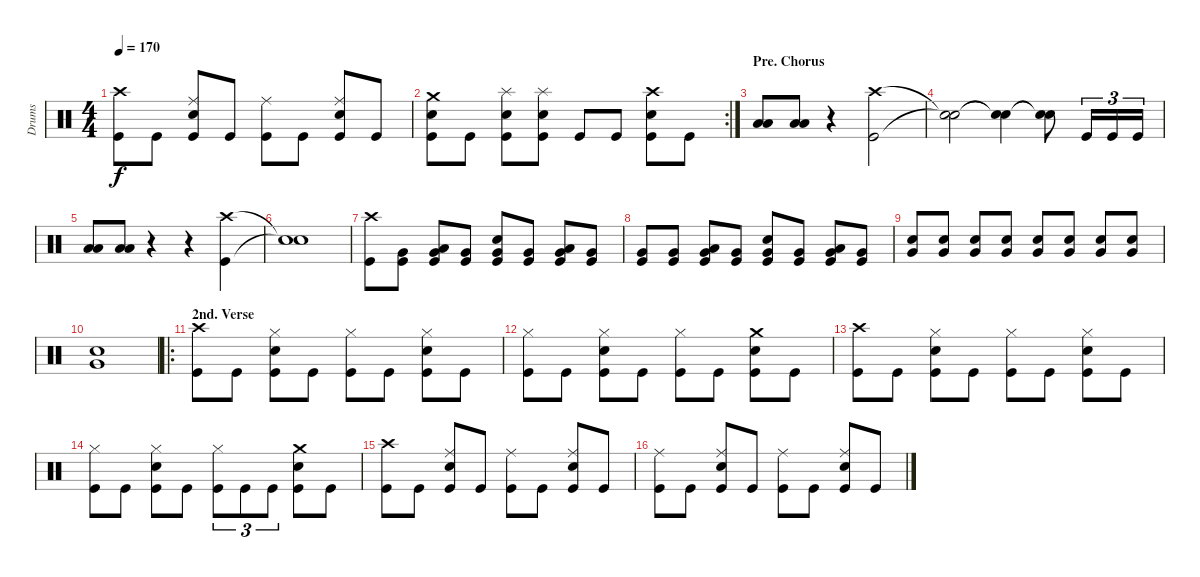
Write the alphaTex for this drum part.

\track ("Drums" "Drums") {instrument percussion}
\staff {score}
\articulation defaults
\ts (4 4)
\tempo 170
\clef neutral
\ks c
("Crash high (hit)" "Kick (hit)").8{dy f} "Kick (hit)".8 ("Ride (middle)" "Snare (hit) 2" "Kick (hit)").8 "Kick (hit)".8 ("Ride (middle)" "Kick (hit)").8 "Kick (hit)".8 ("Ride (middle)" "Snare (hit) 2" "Kick (hit)").8 "Kick (hit)".8 |
\rc 2
("Crash medium (hit)" "Snare (hit) 2" "Kick (hit)").8 "Kick (hit)".8 ("Splash (hit)" "Snare (hit) 2" "Kick (hit)").8 ("Splash (hit)" "Snare (hit) 2" "Kick (hit)").8 "Kick (hit)".8 "Kick (hit)".8 ("Crash high (hit)" "Snare (hit) 2" "Kick (hit)").8 "Kick (hit)".8 |
\section ("" "Pre. Chorus")
("Low Tom (hit)" "Low Floor Tom (hit)").8 ("Low Tom (hit)" "Low Floor Tom (hit)").8 r.4 ("Crash high (hit)" "Kick (hit)").2 |
("Snare (hit)"{t} "Snare (hit)"{t}).2 ("Snare (hit)"{t} "Snare (hit)"{t}).4 ("Snare (hit)"{t} "Snare (hit)"{t}).8 "Kick (hit)".16{tu (3 2)} "Kick (hit)".16{tu (3 2)} "Kick (hit)".16{tu (3 2)} |
("Low Tom (hit)" "Low Floor Tom (hit)").8 ("Low Tom (hit)" "Low Floor Tom (hit)").8 r.4 r.4 ("Crash high (hit)" "Kick (hit)").4 |
("Snare (hit)"{t} "Snare (hit)"{t}).1 |
("Crash high (hit)" "Kick (hit)").8 ("Very Low Tom (hit)" "Kick (hit)").8 ("Low Tom (hit)" "Very Low Tom (hit)" "Kick (hit)").8 ("Very Low Tom (hit)" "Kick (hit)").8 ("Very Low Tom (hit)" "Snare (hit) 2" "Kick (hit)").8 ("Very Low Tom (hit)" "Kick (hit)").8 ("Low Tom (hit)" "Very Low Tom (hit)" "Kick (hit)").8 ("Very Low Tom (hit)" "Kick (hit)").8 |
("Very Low Tom (hit)" "Kick (hit)").8 ("Very Low Tom (hit)" "Kick (hit)").8 ("Low Tom (hit)" "Very Low Tom (hit)" "Kick (hit)").8 ("Very Low Tom (hit)" "Kick (hit)").8 ("Very Low Tom (hit)" "Snare (hit) 2" "Kick (hit)").8 ("Very Low Tom (hit)" "Kick (hit)").8 ("Low Tom (hit)" "Very Low Tom (hit)" "Kick (hit)").8 ("Very Low Tom (hit)" "Kick (hit)").8 |
("Very Low Tom (hit)" "Snare (hit) 2").8 ("Very Low Tom (hit)" "Snare (hit) 2").8 ("Very Low Tom (hit)" "Snare (hit) 2").8 ("Very Low Tom (hit)" "Snare (hit) 2").8 ("Very Low Tom (hit)" "Snare (hit) 2").8 ("Very Low Tom (hit)" "Snare (hit) 2").8 ("Very Low Tom (hit)" "Snare (hit) 2").8 ("Very Low Tom (hit)" "Snare (hit) 2").8 |
("Very Low Tom (hit)" "Snare (hit) 2").1 |
\ro
\section ("" "2nd. Verse")
("Crash high (hit)" "Kick (hit)").8 "Kick (hit)".8 ("Hi-Hat (closed)" "Snare (hit) 2" "Kick (hit)").8 "Kick (hit)".8 ("Hi-Hat (closed)" "Kick (hit)").8 "Kick (hit)".8 ("Hi-Hat (closed)" "Snare (hit) 2" "Kick (hit)").8 "Kick (hit)".8 |
("Hi-Hat (closed)" "Kick (hit)").8 "Kick (hit)".8 ("Hi-Hat (closed)" "Snare (hit) 2" "Kick (hit)").8 "Kick (hit)".8 ("Hi-Hat (closed)" "Kick (hit)").8 "Kick (hit)".8 ("Crash medium (hit)" "Snare (hit) 2" "Kick (hit)").8 "Kick (hit)".8 |
("Crash high (hit)" "Kick (hit)").8 "Kick (hit)".8 ("Hi-Hat (closed)" "Snare (hit) 2" "Kick (hit)").8 "Kick (hit)".8 ("Hi-Hat (closed)" "Kick (hit)").8 "Kick (hit)".8 ("Hi-Hat (closed)" "Snare (hit) 2" "Kick (hit)").8 "Kick (hit)".8 |
("Hi-Hat (closed)" "Kick (hit)").8 "Kick (hit)".8 ("Hi-Hat (closed)" "Snare (hit) 2" "Kick (hit)").8 "Kick (hit)".8 ("Hi-Hat (closed)" "Kick (hit)").8{tu (3 2)} "Kick (hit)".8{tu (3 2)} "Kick (hit)".8{tu (3 2)} ("Crash medium (hit)" "Snare (hit) 2" "Kick (hit)").8 "Kick (hit)".8 |
("Crash high (hit)" "Kick (hit)").8 "Kick (hit)".8 ("Ride (middle)" "Snare (hit) 2" "Kick (hit)").8 "Kick (hit)".8 ("Ride (middle)" "Kick (hit)").8 "Kick (hit)".8 ("Ride (middle)" "Snare (hit) 2" "Kick (hit)").8 "Kick (hit)".8 |
("Ride (middle)" "Kick (hit)").8 "Kick (hit)".8 ("Ride (middle)" "Snare (hit) 2" "Kick (hit)").8 "Kick (hit)".8 ("Ride (middle)" "Kick (hit)").8 "Kick (hit)".8 ("Ride (middle)" "Snare (hit) 2" "Kick (hit)").8 "Kick (hit)".8
